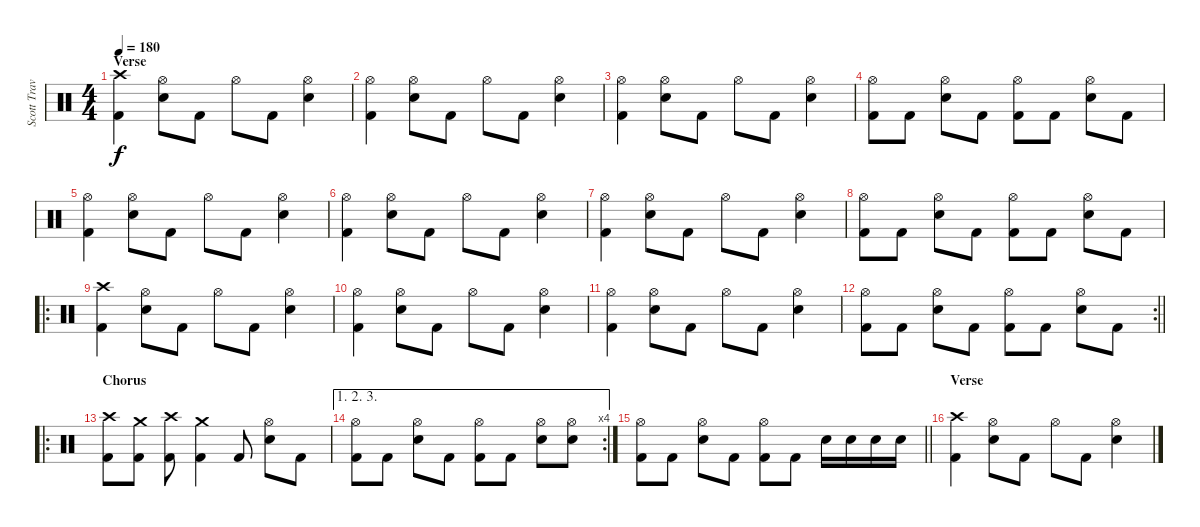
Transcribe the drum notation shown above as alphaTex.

\track ("Scott Travis" "Scott Trav") {instrument percussion}
\staff {score}
\articulation defaults
\ts (4 4)
\section ("" "Verse")
\tempo 180
\clef neutral
\ks c
("Crash high (hit)" "Kick (hit) 2").4{dy f} ("Hi-Hat (open)" "Snare (hit) 2").8 "Kick (hit) 2".8 "Hi-Hat (open)".8 "Kick (hit) 2".8 ("Hi-Hat (open)" "Snare (hit) 2").4 |
("Hi-Hat (open)" "Kick (hit) 2").4 ("Hi-Hat (open)" "Snare (hit) 2").8 "Kick (hit) 2".8 "Hi-Hat (open)".8 "Kick (hit) 2".8 ("Hi-Hat (open)" "Snare (hit) 2").4 |
("Hi-Hat (open)" "Kick (hit) 2").4 ("Hi-Hat (open)" "Snare (hit) 2").8 "Kick (hit) 2".8 "Hi-Hat (open)".8 "Kick (hit) 2".8 ("Hi-Hat (open)" "Snare (hit) 2").4 |
("Hi-Hat (open)" "Kick (hit) 2").8 "Kick (hit) 2".8 ("Hi-Hat (open)" "Snare (hit) 2").8 "Kick (hit) 2".8 ("Hi-Hat (open)" "Kick (hit) 2").8 "Kick (hit) 2".8 ("Hi-Hat (open)" "Snare (hit) 2").8 "Kick (hit) 2".8 |
("Hi-Hat (open)" "Kick (hit) 2").4 ("Hi-Hat (open)" "Snare (hit) 2").8 "Kick (hit) 2".8 "Hi-Hat (open)".8 "Kick (hit) 2".8 ("Hi-Hat (open)" "Snare (hit) 2").4 |
("Hi-Hat (open)" "Kick (hit) 2").4 ("Hi-Hat (open)" "Snare (hit) 2").8 "Kick (hit) 2".8 "Hi-Hat (open)".8 "Kick (hit) 2".8 ("Hi-Hat (open)" "Snare (hit) 2").4 |
("Hi-Hat (open)" "Kick (hit) 2").4 ("Hi-Hat (open)" "Snare (hit) 2").8 "Kick (hit) 2".8 "Hi-Hat (open)".8 "Kick (hit) 2".8 ("Hi-Hat (open)" "Snare (hit) 2").4 |
("Hi-Hat (open)" "Kick (hit) 2").8 "Kick (hit) 2".8 ("Hi-Hat (open)" "Snare (hit) 2").8 "Kick (hit) 2".8 ("Hi-Hat (open)" "Kick (hit) 2").8 "Kick (hit) 2".8 ("Hi-Hat (open)" "Snare (hit) 2").8 "Kick (hit) 2".8 |
\ro
("Crash high (hit)" "Kick (hit) 2").4 ("Hi-Hat (open)" "Snare (hit) 2").8 "Kick (hit) 2".8 "Hi-Hat (open)".8 "Kick (hit) 2".8 ("Hi-Hat (open)" "Snare (hit) 2").4 |
("Hi-Hat (open)" "Kick (hit) 2").4 ("Hi-Hat (open)" "Snare (hit) 2").8 "Kick (hit) 2".8 "Hi-Hat (open)".8 "Kick (hit) 2".8 ("Hi-Hat (open)" "Snare (hit) 2").4 |
("Hi-Hat (open)" "Kick (hit) 2").4 ("Hi-Hat (open)" "Snare (hit) 2").8 "Kick (hit) 2".8 "Hi-Hat (open)".8 "Kick (hit) 2".8 ("Hi-Hat (open)" "Snare (hit) 2").4 |
\rc 2
\barLineRight lightlight
("Hi-Hat (open)" "Kick (hit) 2").8 "Kick (hit) 2".8 ("Hi-Hat (open)" "Snare (hit) 2").8 "Kick (hit) 2".8 ("Hi-Hat (open)" "Kick (hit) 2").8 "Kick (hit) 2".8 ("Hi-Hat (open)" "Snare (hit) 2").8 "Kick (hit) 2".8 |
\ro
\section ("" "Chorus")
("Crash high (hit)" "Kick (hit) 2").8 ("Crash medium (hit)" "Kick (hit) 2").8 ("Crash high (hit)" "Kick (hit) 2").8 ("Crash medium (hit)" "Kick (hit) 2").4 "Kick (hit) 2".8 ("Hi-Hat (open)" "Snare (hit) 2").8 "Kick (hit) 2".8 |
\ae (1 2 3)
\rc 4
("Hi-Hat (open)" "Kick (hit) 2").8 "Kick (hit) 2".8 ("Hi-Hat (open)" "Snare (hit) 2").8 "Kick (hit) 2".8 ("Hi-Hat (open)" "Kick (hit) 2").8 "Kick (hit) 2".8 ("Hi-Hat (open)" "Snare (hit) 2").8 ("Hi-Hat (open)" "Snare (hit) 2").8 |
\barLineRight lightlight
("Hi-Hat (open)" "Kick (hit) 2").8 "Kick (hit) 2".8 ("Hi-Hat (open)" "Snare (hit) 2").8 "Kick (hit) 2".8 ("Hi-Hat (open)" "Kick (hit) 2").8 "Kick (hit) 2".8 "Snare (hit) 2".16 "Snare (hit) 2".16 "Snare (hit) 2".16 "Snare (hit) 2".16 |
\section ("" "Verse")
("Crash high (hit)" "Kick (hit) 2").4 ("Hi-Hat (open)" "Snare (hit) 2").8 "Kick (hit) 2".8 "Hi-Hat (open)".8 "Kick (hit) 2".8 ("Hi-Hat (open)" "Snare (hit) 2").4
